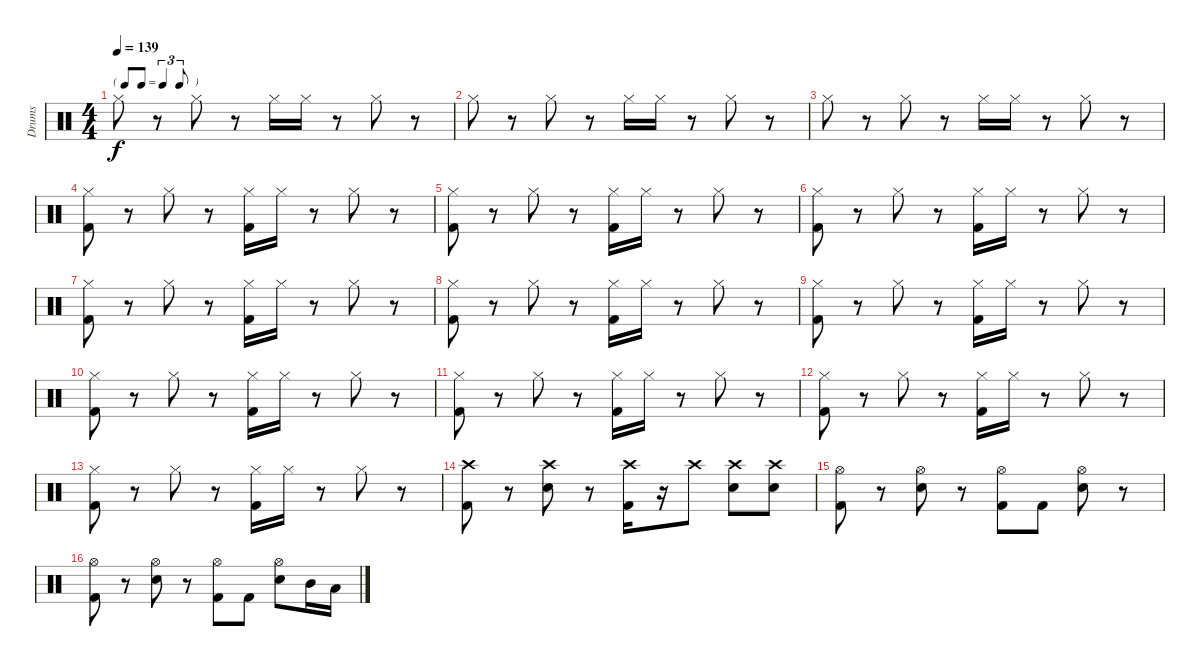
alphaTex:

\track ("Drums" "Drums") {instrument percussion}
\staff {score}
\articulation defaults
\ts (4 4)
\tf triplet8th
\tempo 139
\clef neutral
\ks c "Hi-Hat (closed)".8{dy f}
r.8 "Hi-Hat (closed)".8 r.8 "Hi-Hat (closed)".16 "Hi-Hat (closed)".16 r.8 "Hi-Hat (closed)".8 r.8 |
"Hi-Hat (closed)".8 r.8 "Hi-Hat (closed)".8 r.8 "Hi-Hat (closed)".16 "Hi-Hat (closed)".16 r.8 "Hi-Hat (closed)".8 r.8 |
"Hi-Hat (closed)".8 r.8 "Hi-Hat (closed)".8 r.8 "Hi-Hat (closed)".16 "Hi-Hat (closed)".16 r.8 "Hi-Hat (closed)".8 r.8 |
("Hi-Hat (closed)" "Kick (hit) 2").8 r.8 "Hi-Hat (closed)".8 r.8 ("Hi-Hat (closed)" "Kick (hit) 2").16 "Hi-Hat (closed)".16 r.8 "Hi-Hat (closed)".8 r.8 |
("Hi-Hat (closed)" "Kick (hit) 2").8 r.8 "Hi-Hat (closed)".8 r.8 ("Hi-Hat (closed)" "Kick (hit) 2").16 "Hi-Hat (closed)".16 r.8 "Hi-Hat (closed)".8 r.8 |
("Hi-Hat (closed)" "Kick (hit) 2").8 r.8 "Hi-Hat (closed)".8 r.8 ("Hi-Hat (closed)" "Kick (hit) 2").16 "Hi-Hat (closed)".16 r.8 "Hi-Hat (closed)".8 r.8 |
("Hi-Hat (closed)" "Kick (hit) 2").8 r.8 "Hi-Hat (closed)".8 r.8 ("Hi-Hat (closed)" "Kick (hit) 2").16 "Hi-Hat (closed)".16 r.8 "Hi-Hat (closed)".8 r.8 |
("Hi-Hat (closed)" "Kick (hit) 2").8 r.8 "Hi-Hat (closed)".8 r.8 ("Hi-Hat (closed)" "Kick (hit) 2").16 "Hi-Hat (closed)".16 r.8 "Hi-Hat (closed)".8 r.8 |
("Hi-Hat (closed)" "Kick (hit) 2").8 r.8 "Hi-Hat (closed)".8 r.8 ("Hi-Hat (closed)" "Kick (hit) 2").16 "Hi-Hat (closed)".16 r.8 "Hi-Hat (closed)".8 r.8 |
("Hi-Hat (closed)" "Kick (hit) 2").8 r.8 "Hi-Hat (closed)".8 r.8 ("Hi-Hat (closed)" "Kick (hit) 2").16 "Hi-Hat (closed)".16 r.8 "Hi-Hat (closed)".8 r.8 |
("Hi-Hat (closed)" "Kick (hit) 2").8 r.8 "Hi-Hat (closed)".8 r.8 ("Hi-Hat (closed)" "Kick (hit) 2").16 "Hi-Hat (closed)".16 r.8 "Hi-Hat (closed)".8 r.8 |
("Hi-Hat (closed)" "Kick (hit) 2").8 r.8 "Hi-Hat (closed)".8 r.8 ("Hi-Hat (closed)" "Kick (hit) 2").16 "Hi-Hat (closed)".16 r.8 "Hi-Hat (closed)".8 r.8 |
("Hi-Hat (closed)" "Kick (hit) 2").8 r.8 "Hi-Hat (closed)".8 r.8 ("Hi-Hat (closed)" "Kick (hit) 2").16 "Hi-Hat (closed)".16 r.8 "Hi-Hat (closed)".8 r.8 |
("Crash high (hit)" "Kick (hit) 2").8 r.8 ("Crash high (hit)" "Snare (hit) 2").8 r.8 ("Crash high (hit)" "Kick (hit) 2").16 r.16 "Crash high (hit)".8 ("Crash high (hit)" "Snare (hit) 2").8 ("Crash high (hit)" "Snare (hit) 2").8 |
("Hi-Hat (open)" "Kick (hit) 2").8 r.8 ("Hi-Hat (open)" "Snare (hit) 2").8 r.8 ("Hi-Hat (open)" "Kick (hit) 2").8 "Kick (hit) 2".8 ("Hi-Hat (open)" "Snare (hit) 2").8 r.8 |
("Hi-Hat (open)" "Kick (hit) 2").8 r.8 ("Hi-Hat (open)" "Snare (hit) 2").8 r.8 ("Hi-Hat (open)" "Kick (hit) 2").8 "Kick (hit) 2".8 ("Hi-Hat (open)" "Snare (hit) 2").8 "Mid Tom (hit)".16 "Low Tom (hit)".16
